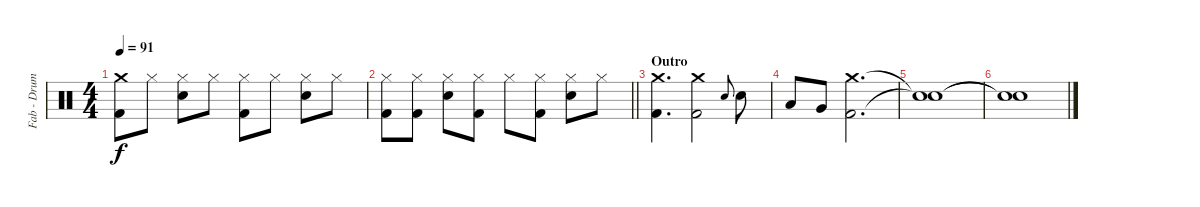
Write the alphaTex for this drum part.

\track ("Fab - Drums MIDI" "Fab - Drum") {instrument percussion}
\staff {score}
\articulation defaults
\ts (4 4)
\tempo 91
\clef neutral
\ks c
("Crash medium (hit)" "Kick (hit) 2").8{dy f} "Hi-Hat (closed)".8 ("Hi-Hat (closed)" "Snare (hit) 2").8 "Hi-Hat (closed)".8 ("Hi-Hat (closed)" "Kick (hit) 2").8 "Hi-Hat (closed)".8 ("Hi-Hat (closed)" "Snare (hit) 2").8 "Hi-Hat (closed)".8 |
\barLineRight lightlight
("Hi-Hat (closed)" "Kick (hit) 2").8 ("Hi-Hat (closed)" "Kick (hit) 2").8 ("Hi-Hat (closed)" "Snare (hit) 2").8 ("Hi-Hat (closed)" "Kick (hit) 2").8 "Hi-Hat (closed)".8 ("Hi-Hat (closed)" "Kick (hit) 2").8 ("Hi-Hat (closed)" "Snare (hit) 2").8 "Hi-Hat (closed)".8 |
\section ("" "Outro")
("Crash medium (hit)" "Kick (hit) 2").4{d} ("Crash medium (hit)" "Kick (hit) 2").2 "Snare (hit) 2".8{gr onbeat} "Snare (hit) 2".8 |
"Low Tom (hit)".8 "Very Low Tom (hit)".8 ("Crash medium (hit)" "Kick (hit) 2").2{d} |
("Snare (hit)"{t} "Snare (hit)"{t}).1 |
("Snare (hit)"{t} "Snare (hit)"{t}).1
